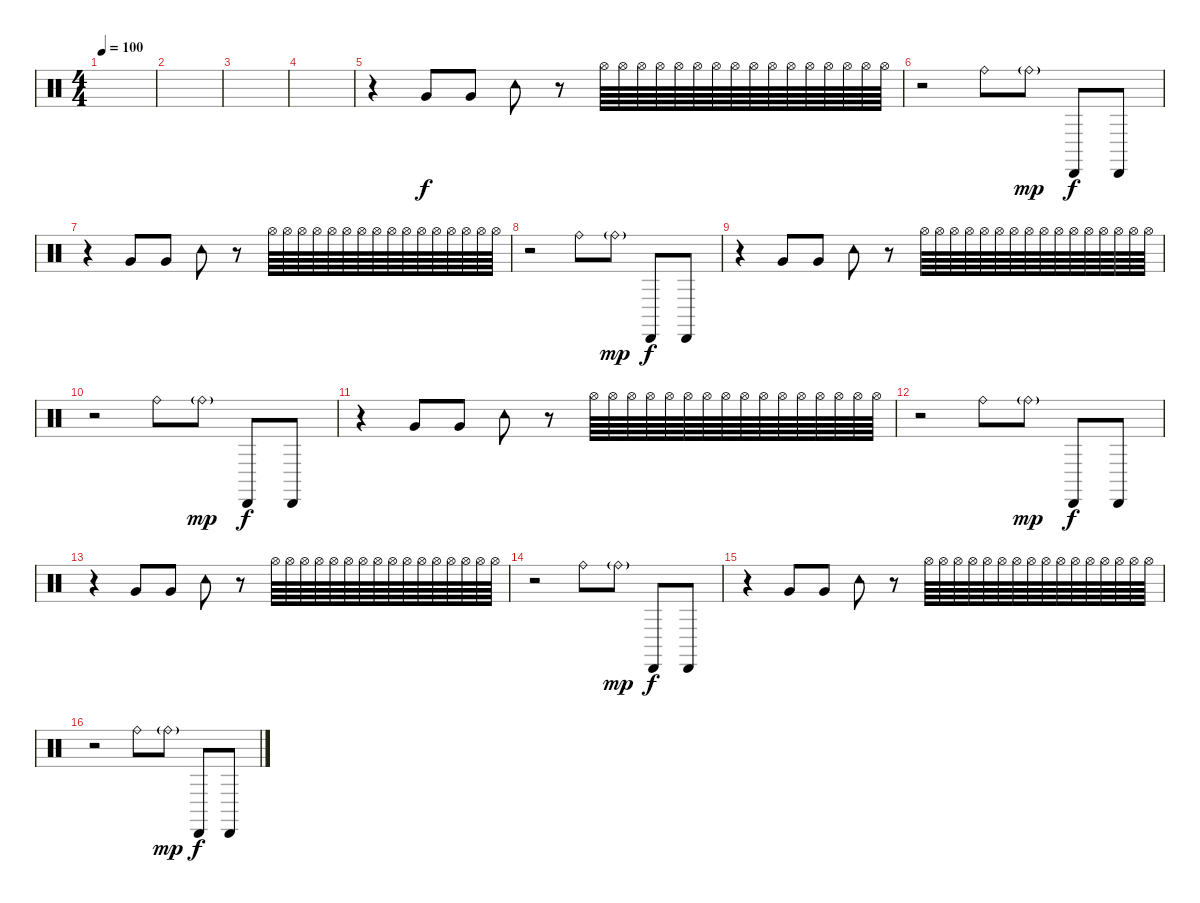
\track "" {instrument percussion}
\staff {score}
\articulation defaults
\ts (4 4)
\tempo 100
\clef neutral
\ks c
|
|
|
|
r.4 "Very Low Tom (hit)".8 "Very Low Tom (hit)".8 "Tambourine (hit)".8 r.8 "Hi-Hat (open)".64 "Hi-Hat (open)".64 "Hi-Hat (open)".64 "Hi-Hat (open)".64 "Hi-Hat (open)".64 "Hi-Hat (open)".64 "Hi-Hat (open)".64 "Hi-Hat (open)".64 "Hi-Hat (open)".64 "Hi-Hat (open)".64 "Hi-Hat (open)".64 "Hi-Hat (open)".64 "Hi-Hat (open)".64 "Hi-Hat (open)".64 "Hi-Hat (open)".64 "Hi-Hat (open)".64 |
r.2 "Ride (bell)".8 "Ride (bell)"{g}.8{dy mp} "Cabasa (hit)".8{dy f} "Cabasa (hit)".8 |
r.4 "Very Low Tom (hit)".8 "Very Low Tom (hit)".8 "Tambourine (hit)".8 r.8 "Hi-Hat (open)".64 "Hi-Hat (open)".64 "Hi-Hat (open)".64 "Hi-Hat (open)".64 "Hi-Hat (open)".64 "Hi-Hat (open)".64 "Hi-Hat (open)".64 "Hi-Hat (open)".64 "Hi-Hat (open)".64 "Hi-Hat (open)".64 "Hi-Hat (open)".64 "Hi-Hat (open)".64 "Hi-Hat (open)".64 "Hi-Hat (open)".64 "Hi-Hat (open)".64 "Hi-Hat (open)".64 |
r.2 "Ride (bell)".8 "Ride (bell)"{g}.8{dy mp} "Cabasa (hit)".8{dy f} "Cabasa (hit)".8 |
r.4 "Very Low Tom (hit)".8 "Very Low Tom (hit)".8 "Tambourine (hit)".8 r.8 "Hi-Hat (open)".64 "Hi-Hat (open)".64 "Hi-Hat (open)".64 "Hi-Hat (open)".64 "Hi-Hat (open)".64 "Hi-Hat (open)".64 "Hi-Hat (open)".64 "Hi-Hat (open)".64 "Hi-Hat (open)".64 "Hi-Hat (open)".64 "Hi-Hat (open)".64 "Hi-Hat (open)".64 "Hi-Hat (open)".64 "Hi-Hat (open)".64 "Hi-Hat (open)".64 "Hi-Hat (open)".64 |
r.2 "Ride (bell)".8 "Ride (bell)"{g}.8{dy mp} "Cabasa (hit)".8{dy f} "Cabasa (hit)".8 |
r.4 "Very Low Tom (hit)".8 "Very Low Tom (hit)".8 "Tambourine (hit)".8 r.8 "Hi-Hat (open)".64 "Hi-Hat (open)".64 "Hi-Hat (open)".64 "Hi-Hat (open)".64 "Hi-Hat (open)".64 "Hi-Hat (open)".64 "Hi-Hat (open)".64 "Hi-Hat (open)".64 "Hi-Hat (open)".64 "Hi-Hat (open)".64 "Hi-Hat (open)".64 "Hi-Hat (open)".64 "Hi-Hat (open)".64 "Hi-Hat (open)".64 "Hi-Hat (open)".64 "Hi-Hat (open)".64 |
r.2 "Ride (bell)".8 "Ride (bell)"{g}.8{dy mp} "Cabasa (hit)".8{dy f} "Cabasa (hit)".8 |
r.4 "Very Low Tom (hit)".8 "Very Low Tom (hit)".8 "Tambourine (hit)".8 r.8 "Hi-Hat (open)".64 "Hi-Hat (open)".64 "Hi-Hat (open)".64 "Hi-Hat (open)".64 "Hi-Hat (open)".64 "Hi-Hat (open)".64 "Hi-Hat (open)".64 "Hi-Hat (open)".64 "Hi-Hat (open)".64 "Hi-Hat (open)".64 "Hi-Hat (open)".64 "Hi-Hat (open)".64 "Hi-Hat (open)".64 "Hi-Hat (open)".64 "Hi-Hat (open)".64 "Hi-Hat (open)".64 |
r.2 "Ride (bell)".8 "Ride (bell)"{g}.8{dy mp} "Cabasa (hit)".8{dy f} "Cabasa (hit)".8 |
r.4 "Very Low Tom (hit)".8 "Very Low Tom (hit)".8 "Tambourine (hit)".8 r.8 "Hi-Hat (open)".64 "Hi-Hat (open)".64 "Hi-Hat (open)".64 "Hi-Hat (open)".64 "Hi-Hat (open)".64 "Hi-Hat (open)".64 "Hi-Hat (open)".64 "Hi-Hat (open)".64 "Hi-Hat (open)".64 "Hi-Hat (open)".64 "Hi-Hat (open)".64 "Hi-Hat (open)".64 "Hi-Hat (open)".64 "Hi-Hat (open)".64 "Hi-Hat (open)".64 "Hi-Hat (open)".64 |
r.2 "Ride (bell)".8 "Ride (bell)"{g}.8{dy mp} "Cabasa (hit)".8{dy f} "Cabasa (hit)".8
